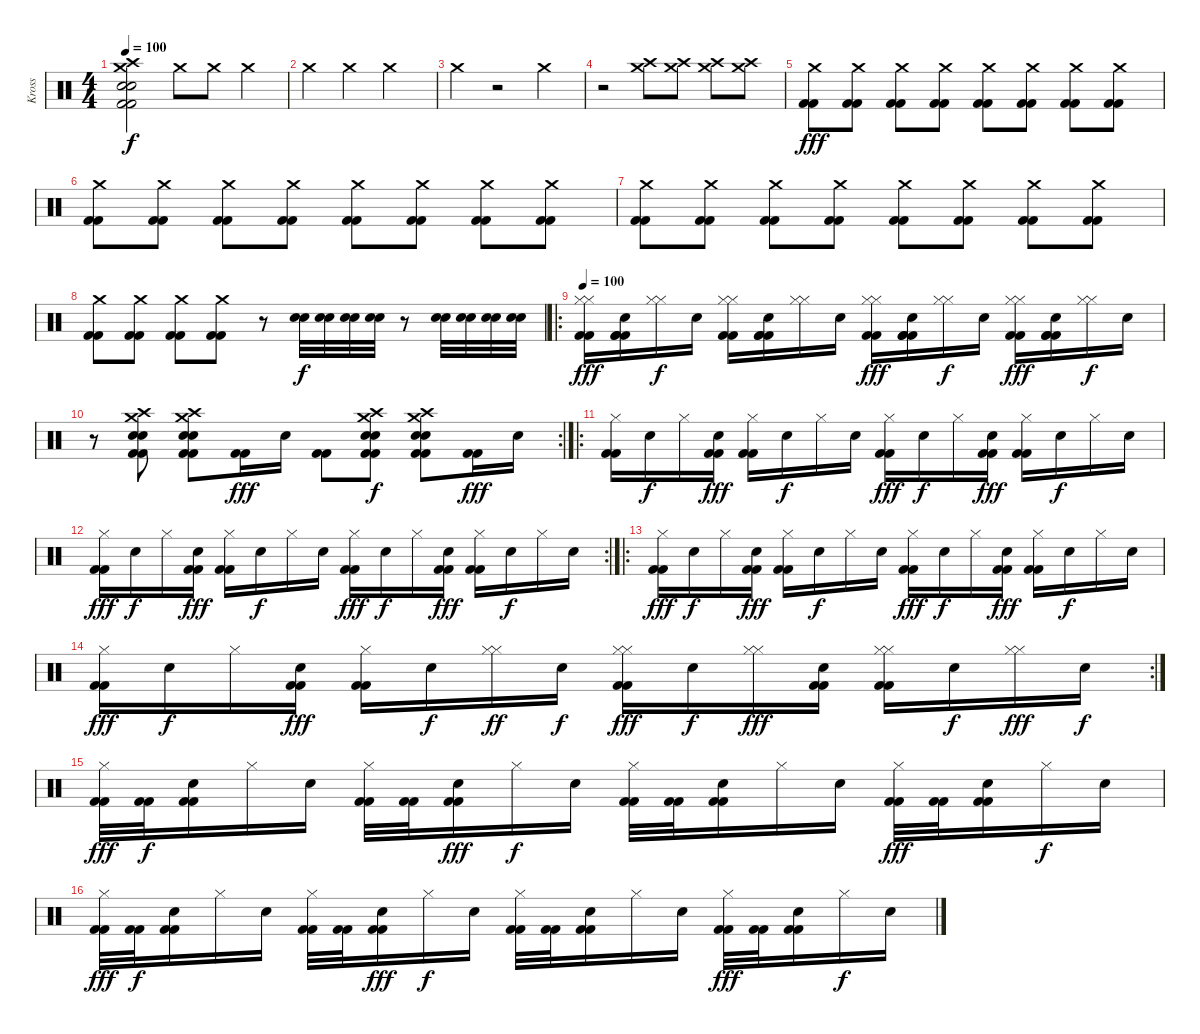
\track ("Kross" "Kross") {instrument percussion}
\staff {score}
\articulation defaults
\ts (4 4)
\tempo 100
\tempo 110
\tempo 100
\clef neutral
\ks c
("Crash high (hit)" "Crash medium (hit)" "Snare (hit) 2" "Snare (hit) 2" "Kick (hit) 2" "Kick (hit) 2").2{dy f} "Crash medium (hit)".8 "Crash medium (hit)".8 "Crash medium (hit)".4 |
"Crash medium (hit)".4 "Crash medium (hit)".4 "Crash medium (hit)".2 |
"Crash medium (hit)".4 r.2 "Crash medium (hit)".4 |
r.2 ("Crash medium (hit)" "Crash high (hit)").8 ("Crash medium (hit)" "Crash high (hit)").8 ("Crash medium (hit)" "Crash high (hit)").8 ("Crash medium (hit)" "Crash high (hit)").8 |
("Crash medium (hit)" "Kick (hit) 2" "Kick (hit) 2").8{dy fff} ("Crash medium (hit)" "Kick (hit) 2" "Kick (hit) 2").8 ("Crash medium (hit)" "Kick (hit) 2" "Kick (hit) 2").8 ("Crash medium (hit)" "Kick (hit) 2" "Kick (hit) 2").8 ("Crash medium (hit)" "Kick (hit) 2" "Kick (hit) 2").8 ("Crash medium (hit)" "Kick (hit) 2" "Kick (hit) 2").8 ("Crash medium (hit)" "Kick (hit) 2" "Kick (hit) 2").8 ("Crash medium (hit)" "Kick (hit) 2" "Kick (hit) 2").8 |
("Crash medium (hit)" "Kick (hit) 2" "Kick (hit) 2").8 ("Crash medium (hit)" "Kick (hit) 2" "Kick (hit) 2").8 ("Crash medium (hit)" "Kick (hit) 2" "Kick (hit) 2").8 ("Crash medium (hit)" "Kick (hit) 2" "Kick (hit) 2").8 ("Crash medium (hit)" "Kick (hit) 2" "Kick (hit) 2").8 ("Crash medium (hit)" "Kick (hit) 2" "Kick (hit) 2").8 ("Crash medium (hit)" "Kick (hit) 2" "Kick (hit) 2").8 ("Crash medium (hit)" "Kick (hit) 2" "Kick (hit) 2").8 |
("Crash medium (hit)" "Kick (hit) 2" "Kick (hit) 2").8 ("Crash medium (hit)" "Kick (hit) 2" "Kick (hit) 2").8 ("Crash medium (hit)" "Kick (hit) 2" "Kick (hit) 2").8 ("Crash medium (hit)" "Kick (hit) 2" "Kick (hit) 2").8 ("Crash medium (hit)" "Kick (hit) 2" "Kick (hit) 2").8 ("Crash medium (hit)" "Kick (hit) 2" "Kick (hit) 2").8 ("Crash medium (hit)" "Kick (hit) 2" "Kick (hit) 2").8 ("Crash medium (hit)" "Kick (hit) 2" "Kick (hit) 2").8 |
("Crash medium (hit)" "Kick (hit) 2" "Kick (hit) 2").8 ("Crash medium (hit)" "Kick (hit) 2" "Kick (hit) 2").8 ("Crash medium (hit)" "Kick (hit) 2" "Kick (hit) 2").8 ("Crash medium (hit)" "Kick (hit) 2" "Kick (hit) 2").8 r.8 ("Snare (hit) 2" "Snare (hit) 2").32{dy f} ("Snare (hit) 2" "Snare (hit) 2").32 ("Snare (hit) 2" "Snare (hit) 2").32 ("Snare (hit) 2" "Snare (hit) 2").32 r.8 ("Snare (hit) 2" "Snare (hit) 2").32 ("Snare (hit) 2" "Snare (hit) 2").32 ("Snare (hit) 2" "Snare (hit) 2").32 ("Snare (hit) 2" "Snare (hit) 2").32 |
\ro
\tempo 100
("Kick (hit) 2" "Kick (hit) 2" "Hi-Hat (closed)" "Hi-Hat (closed)").16{dy fff} ("Kick (hit) 2" "Kick (hit) 2" "Kick (hit) 2" "Snare (hit) 2").16 ("Hi-Hat (closed)" "Hi-Hat (closed)").16{dy f} "Snare (hit) 2".16 ("Kick (hit) 2" "Kick (hit) 2" "Hi-Hat (closed)" "Hi-Hat (closed)").16 ("Kick (hit) 2" "Kick (hit) 2" "Kick (hit) 2" "Snare (hit) 2").16 ("Hi-Hat (closed)" "Hi-Hat (closed)").16 "Snare (hit) 2".16 ("Kick (hit) 2" "Kick (hit) 2" "Hi-Hat (closed)" "Hi-Hat (closed)").16{dy fff} ("Kick (hit) 2" "Kick (hit) 2" "Kick (hit) 2" "Snare (hit) 2").16 ("Hi-Hat (closed)" "Hi-Hat (closed)").16{dy f} "Snare (hit) 2".16 ("Kick (hit) 2" "Kick (hit) 2" "Hi-Hat (closed)" "Hi-Hat (closed)").16{dy fff} ("Kick (hit) 2" "Kick (hit) 2" "Kick (hit) 2" "Snare (hit) 2").16 ("Hi-Hat (closed)" "Hi-Hat (closed)").16{dy f} "Snare (hit) 2".16 |
\rc 2
r.8 ("Crash high (hit)" "Crash medium (hit)" "Snare (hit) 2" "Snare (hit) 2" "Kick (hit) 2" "Kick (hit) 2").8 ("Crash high (hit)" "Crash medium (hit)" "Snare (hit) 2" "Snare (hit) 2" "Kick (hit) 2" "Kick (hit) 2").8 ("Kick (hit) 2" "Kick (hit) 2").16{dy fff} "Snare (hit) 2".16 ("Kick (hit) 2" "Kick (hit) 2").8 ("Crash high (hit)" "Crash medium (hit)" "Snare (hit) 2" "Snare (hit) 2" "Kick (hit) 2" "Kick (hit) 2").8{dy f} ("Crash high (hit)" "Crash medium (hit)" "Snare (hit) 2" "Snare (hit) 2" "Kick (hit) 2" "Kick (hit) 2").8 ("Kick (hit) 2" "Kick (hit) 2").16{dy fff} "Snare (hit) 2".16 |
\ro
("Kick (hit) 2" "Kick (hit) 2" "Hi-Hat (closed)").16 "Snare (hit) 2".16{dy f} "Hi-Hat (closed)".16 ("Kick (hit) 2" "Kick (hit) 2" "Snare (hit) 2").16{dy fff} ("Kick (hit) 2" "Kick (hit) 2" "Hi-Hat (closed)").16 "Snare (hit) 2".16{dy f} "Hi-Hat (closed)".16 "Snare (hit) 2".16 ("Kick (hit) 2" "Kick (hit) 2" "Hi-Hat (closed)").16{dy fff} "Snare (hit) 2".16{dy f} "Hi-Hat (closed)".16 ("Kick (hit) 2" "Kick (hit) 2" "Snare (hit) 2").16{dy fff} ("Kick (hit) 2" "Kick (hit) 2" "Hi-Hat (closed)").16 "Snare (hit) 2".16{dy f} "Hi-Hat (closed)".16 "Snare (hit) 2".16 |
\rc 2
("Kick (hit) 2" "Kick (hit) 2" "Hi-Hat (closed)").16{dy fff} "Snare (hit) 2".16{dy f} "Hi-Hat (closed)".16 ("Kick (hit) 2" "Kick (hit) 2" "Snare (hit) 2").16{dy fff} ("Kick (hit) 2" "Kick (hit) 2" "Hi-Hat (closed)").16 "Snare (hit) 2".16{dy f} "Hi-Hat (closed)".16 "Snare (hit) 2".16 ("Kick (hit) 2" "Kick (hit) 2" "Hi-Hat (closed)").16{dy fff} "Snare (hit) 2".16{dy f} "Hi-Hat (closed)".16 ("Kick (hit) 2" "Kick (hit) 2" "Snare (hit) 2").16{dy fff} ("Kick (hit) 2" "Kick (hit) 2" "Hi-Hat (closed)").16 "Snare (hit) 2".16{dy f} "Hi-Hat (closed)".16 "Snare (hit) 2".16 |
\ro
("Kick (hit) 2" "Kick (hit) 2" "Hi-Hat (closed)").16{dy fff} "Snare (hit) 2".16{dy f} "Hi-Hat (closed)".16 ("Kick (hit) 2" "Kick (hit) 2" "Snare (hit) 2").16{dy fff} ("Kick (hit) 2" "Kick (hit) 2" "Hi-Hat (closed)").16 "Snare (hit) 2".16{dy f} "Hi-Hat (closed)".16 "Snare (hit) 2".16 ("Kick (hit) 2" "Kick (hit) 2" "Hi-Hat (closed)").16{dy fff} "Snare (hit) 2".16{dy f} "Hi-Hat (closed)".16 ("Kick (hit) 2" "Kick (hit) 2" "Snare (hit) 2").16{dy fff} ("Kick (hit) 2" "Kick (hit) 2" "Hi-Hat (closed)").16 "Snare (hit) 2".16{dy f} "Hi-Hat (closed)".16 "Snare (hit) 2".16 |
\rc 2
("Kick (hit) 2" "Kick (hit) 2" "Hi-Hat (closed)").16{dy fff} "Snare (hit) 2".16{dy f} "Hi-Hat (closed)".16 ("Kick (hit) 2" "Kick (hit) 2" "Snare (hit) 2").16{dy fff} ("Kick (hit) 2" "Kick (hit) 2" "Hi-Hat (closed)").16 "Snare (hit) 2".16{dy f} ("Hi-Hat (closed)" "Hi-Hat (closed)").16{dy ff} "Snare (hit) 2".16{dy f} ("Kick (hit) 2" "Kick (hit) 2" "Hi-Hat (closed)" "Hi-Hat (closed)").16{dy fff} "Snare (hit) 2".16{dy f} ("Hi-Hat (closed)" "Hi-Hat (closed)").16{dy fff} ("Kick (hit) 2" "Kick (hit) 2" "Snare (hit) 2").16 ("Kick (hit) 2" "Kick (hit) 2" "Hi-Hat (closed)" "Hi-Hat (closed)").16 "Snare (hit) 2".16{dy f} ("Hi-Hat (closed)" "Hi-Hat (closed)").16{dy fff} "Snare (hit) 2".16{dy f} |
("Kick (hit) 2" "Kick (hit) 2" "Hi-Hat (closed)").32{dy fff} ("Kick (hit) 2" "Kick (hit) 2").32{dy f} ("Kick (hit) 2" "Kick (hit) 2" "Snare (hit) 2").16 "Hi-Hat (closed)".16 "Snare (hit) 2".16 ("Kick (hit) 2" "Kick (hit) 2" "Hi-Hat (closed)").32 ("Kick (hit) 2" "Kick (hit) 2").32 ("Kick (hit) 2" "Kick (hit) 2" "Snare (hit) 2").16{dy fff} "Hi-Hat (closed)".16{dy f} "Snare (hit) 2".16 ("Kick (hit) 2" "Kick (hit) 2" "Hi-Hat (closed)").32 ("Kick (hit) 2" "Kick (hit) 2").32 ("Kick (hit) 2" "Kick (hit) 2" "Snare (hit) 2").16 "Hi-Hat (closed)".16 "Snare (hit) 2".16 ("Kick (hit) 2" "Kick (hit) 2" "Hi-Hat (closed)").32{dy fff} ("Kick (hit) 2" "Kick (hit) 2").32 ("Kick (hit) 2" "Kick (hit) 2" "Snare (hit) 2").16 "Hi-Hat (closed)".16{dy f} "Snare (hit) 2".16 |
("Kick (hit) 2" "Kick (hit) 2" "Hi-Hat (closed)").32{dy fff} ("Kick (hit) 2" "Kick (hit) 2").32{dy f} ("Kick (hit) 2" "Kick (hit) 2" "Snare (hit) 2").16 "Hi-Hat (closed)".16 "Snare (hit) 2".16 ("Kick (hit) 2" "Kick (hit) 2" "Hi-Hat (closed)").32 ("Kick (hit) 2" "Kick (hit) 2").32 ("Kick (hit) 2" "Kick (hit) 2" "Snare (hit) 2").16{dy fff} "Hi-Hat (closed)".16{dy f} "Snare (hit) 2".16 ("Kick (hit) 2" "Kick (hit) 2" "Hi-Hat (closed)").32 ("Kick (hit) 2" "Kick (hit) 2").32 ("Kick (hit) 2" "Kick (hit) 2" "Snare (hit) 2").16 "Hi-Hat (closed)".16 "Snare (hit) 2".16 ("Kick (hit) 2" "Kick (hit) 2" "Hi-Hat (closed)").32{dy fff} ("Kick (hit) 2" "Kick (hit) 2").32 ("Kick (hit) 2" "Kick (hit) 2" "Snare (hit) 2").16 "Hi-Hat (closed)".16{dy f} "Snare (hit) 2".16
